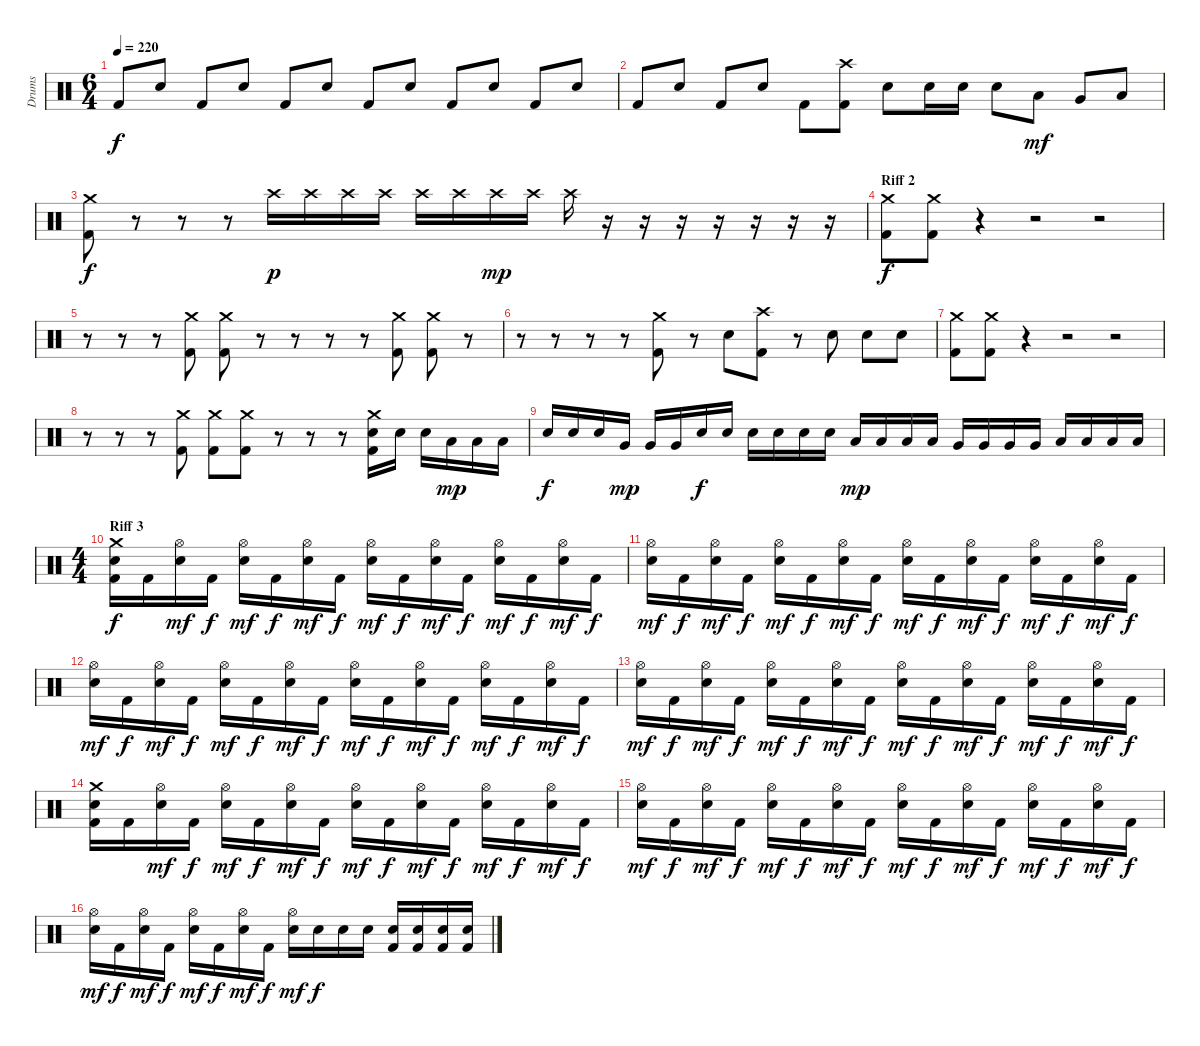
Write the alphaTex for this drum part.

\track ("Drums" "Drums") {instrument percussion}
\staff {score}
\articulation defaults
\ts (6 4)
\tempo 220
\clef neutral
\ks c "Kick (hit) 2".8{dy f} "Electric Snare (hit)".8 "Kick (hit) 2".8 "Electric Snare (hit)".8 "Kick (hit) 2".8 "Electric Snare (hit)".8 "Kick (hit) 2".8 "Electric Snare (hit)".8 "Kick (hit) 2".8 "Electric Snare (hit)".8 "Kick (hit) 2".8 "Electric Snare (hit)".8
|
"Kick (hit) 2".8 "Electric Snare (hit)".8 "Kick (hit) 2".8 "Electric Snare (hit)".8 "Kick (hit) 2".8 ("Crash high (hit)" "Kick (hit) 2").8 "Electric Snare (hit)".8 "Electric Snare (hit)".16 "Electric Snare (hit)".16 "Electric Snare (hit)".8 "Low Tom (hit)".8{dy mf} "Very Low Tom (hit)".8 "Low Floor Tom (hit)".8 |
("Crash medium (hit)" "Kick (hit) 2").8{dy f} r.8 r.8 r.8 "Crash high (hit)".16{dy p} "Crash high (hit)".16 "Crash high (hit)".16 "Crash high (hit)".16 "Crash high (hit)".16 "Crash high (hit)".16 "Crash high (hit)".16{dy mp} "Crash high (hit)".16 "Crash high (hit)".16 r.16 r.16 r.16 r.16 r.16 r.16 r.16 |
\section ("" "Riff 2")
("Crash medium (hit)" "Kick (hit) 2").8{dy f} ("Crash medium (hit)" "Kick (hit) 2").8 r.4 r.2 r.2 |
r.8 r.8 r.8 ("Crash medium (hit)" "Kick (hit) 2").8 ("Crash medium (hit)" "Kick (hit) 2").8 r.8 r.8 r.8 r.8 ("Crash medium (hit)" "Kick (hit) 2").8 ("Crash medium (hit)" "Kick (hit) 2").8 r.8 |
r.8 r.8 r.8 r.8 ("Crash medium (hit)" "Kick (hit) 2").8 r.8 "Electric Snare (hit)".8 ("Crash high (hit)" "Kick (hit) 2").8 r.8 "Electric Snare (hit)".8 "Electric Snare (hit)".8 "Electric Snare (hit)".8 |
("Crash medium (hit)" "Kick (hit) 2").8 ("Crash medium (hit)" "Kick (hit) 2").8 r.4 r.2 r.2 |
r.8 r.8 r.8 ("Crash medium (hit)" "Kick (hit) 2").8 ("Crash medium (hit)" "Kick (hit) 2").8 ("Crash medium (hit)" "Kick (hit) 2").8 r.8 r.8 r.8 ("Crash medium (hit)" "Electric Snare (hit)" "Kick (hit) 2").16 "Electric Snare (hit)".16 "Electric Snare (hit)".16 "Low Tom (hit)".16{dy mp} "Low Tom (hit)".16 "Low Tom (hit)".16 |
"Electric Snare (hit)".16{dy f} "Electric Snare (hit)".16 "Electric Snare (hit)".16 "Very Low Tom (hit)".16{dy mp} "Very Low Tom (hit)".16 "Very Low Tom (hit)".16 "Electric Snare (hit)".16{dy f} "Electric Snare (hit)".16 "Electric Snare (hit)".16 "Electric Snare (hit)".16 "Electric Snare (hit)".16 "Electric Snare (hit)".16 "Low Tom (hit)".16{dy mp} "Low Tom (hit)".16 "Low Tom (hit)".16 "Low Tom (hit)".16 "Very Low Tom (hit)".16 "Very Low Tom (hit)".16 "Very Low Tom (hit)".16 "Very Low Tom (hit)".16 "Low Floor Tom (hit)".16 "Low Floor Tom (hit)".16 "Low Floor Tom (hit)".16 "Low Floor Tom (hit)".16 |
\ts (4 4)
\section ("" "Riff 3")
("Crash medium (hit)" "Electric Snare (hit)" "Kick (hit) 2").16{dy f} "Kick (hit) 2".16 ("Hi-Hat (open)" "Electric Snare (hit)").16{dy mf} "Kick (hit) 2".16{dy f} ("Hi-Hat (open)" "Electric Snare (hit)").16{dy mf} "Kick (hit) 2".16{dy f} ("Hi-Hat (open)" "Electric Snare (hit)").16{dy mf} "Kick (hit) 2".16{dy f} ("Hi-Hat (open)" "Electric Snare (hit)").16{dy mf} "Kick (hit) 2".16{dy f} ("Hi-Hat (open)" "Electric Snare (hit)").16{dy mf} "Kick (hit) 2".16{dy f} ("Hi-Hat (open)" "Electric Snare (hit)").16{dy mf} "Kick (hit) 2".16{dy f} ("Hi-Hat (open)" "Electric Snare (hit)").16{dy mf} "Kick (hit) 2".16{dy f} |
("Hi-Hat (open)" "Electric Snare (hit)").16{dy mf} "Kick (hit) 2".16{dy f} ("Hi-Hat (open)" "Electric Snare (hit)").16{dy mf} "Kick (hit) 2".16{dy f} ("Hi-Hat (open)" "Electric Snare (hit)").16{dy mf} "Kick (hit) 2".16{dy f} ("Hi-Hat (open)" "Electric Snare (hit)").16{dy mf} "Kick (hit) 2".16{dy f} ("Hi-Hat (open)" "Electric Snare (hit)").16{dy mf} "Kick (hit) 2".16{dy f} ("Hi-Hat (open)" "Electric Snare (hit)").16{dy mf} "Kick (hit) 2".16{dy f} ("Hi-Hat (open)" "Electric Snare (hit)").16{dy mf} "Kick (hit) 2".16{dy f} ("Hi-Hat (open)" "Electric Snare (hit)").16{dy mf} "Kick (hit) 2".16{dy f} |
("Hi-Hat (open)" "Electric Snare (hit)").16{dy mf} "Kick (hit) 2".16{dy f} ("Hi-Hat (open)" "Electric Snare (hit)").16{dy mf} "Kick (hit) 2".16{dy f} ("Hi-Hat (open)" "Electric Snare (hit)").16{dy mf} "Kick (hit) 2".16{dy f} ("Hi-Hat (open)" "Electric Snare (hit)").16{dy mf} "Kick (hit) 2".16{dy f} ("Hi-Hat (open)" "Electric Snare (hit)").16{dy mf} "Kick (hit) 2".16{dy f} ("Hi-Hat (open)" "Electric Snare (hit)").16{dy mf} "Kick (hit) 2".16{dy f} ("Hi-Hat (open)" "Electric Snare (hit)").16{dy mf} "Kick (hit) 2".16{dy f} ("Hi-Hat (open)" "Electric Snare (hit)").16{dy mf} "Kick (hit) 2".16{dy f} |
("Hi-Hat (open)" "Electric Snare (hit)").16{dy mf} "Kick (hit) 2".16{dy f} ("Hi-Hat (open)" "Electric Snare (hit)").16{dy mf} "Kick (hit) 2".16{dy f} ("Hi-Hat (open)" "Electric Snare (hit)").16{dy mf} "Kick (hit) 2".16{dy f} ("Hi-Hat (open)" "Electric Snare (hit)").16{dy mf} "Kick (hit) 2".16{dy f} ("Hi-Hat (open)" "Electric Snare (hit)").16{dy mf} "Kick (hit) 2".16{dy f} ("Hi-Hat (open)" "Electric Snare (hit)").16{dy mf} "Kick (hit) 2".16{dy f} ("Hi-Hat (open)" "Electric Snare (hit)").16{dy mf} "Kick (hit) 2".16{dy f} ("Hi-Hat (open)" "Electric Snare (hit)").16{dy mf} "Kick (hit) 2".16{dy f} |
("Crash medium (hit)" "Electric Snare (hit)" "Kick (hit) 2").16 "Kick (hit) 2".16 ("Hi-Hat (open)" "Electric Snare (hit)").16{dy mf} "Kick (hit) 2".16{dy f} ("Hi-Hat (open)" "Electric Snare (hit)").16{dy mf} "Kick (hit) 2".16{dy f} ("Hi-Hat (open)" "Electric Snare (hit)").16{dy mf} "Kick (hit) 2".16{dy f} ("Hi-Hat (open)" "Electric Snare (hit)").16{dy mf} "Kick (hit) 2".16{dy f} ("Hi-Hat (open)" "Electric Snare (hit)").16{dy mf} "Kick (hit) 2".16{dy f} ("Hi-Hat (open)" "Electric Snare (hit)").16{dy mf} "Kick (hit) 2".16{dy f} ("Hi-Hat (open)" "Electric Snare (hit)").16{dy mf} "Kick (hit) 2".16{dy f} |
("Hi-Hat (open)" "Electric Snare (hit)").16{dy mf} "Kick (hit) 2".16{dy f} ("Hi-Hat (open)" "Electric Snare (hit)").16{dy mf} "Kick (hit) 2".16{dy f} ("Hi-Hat (open)" "Electric Snare (hit)").16{dy mf} "Kick (hit) 2".16{dy f} ("Hi-Hat (open)" "Electric Snare (hit)").16{dy mf} "Kick (hit) 2".16{dy f} ("Hi-Hat (open)" "Electric Snare (hit)").16{dy mf} "Kick (hit) 2".16{dy f} ("Hi-Hat (open)" "Electric Snare (hit)").16{dy mf} "Kick (hit) 2".16{dy f} ("Hi-Hat (open)" "Electric Snare (hit)").16{dy mf} "Kick (hit) 2".16{dy f} ("Hi-Hat (open)" "Electric Snare (hit)").16{dy mf} "Kick (hit) 2".16{dy f} |
("Hi-Hat (open)" "Electric Snare (hit)").16{dy mf} "Kick (hit) 2".16{dy f} ("Hi-Hat (open)" "Electric Snare (hit)").16{dy mf} "Kick (hit) 2".16{dy f} ("Hi-Hat (open)" "Electric Snare (hit)").16{dy mf} "Kick (hit) 2".16{dy f} ("Hi-Hat (open)" "Electric Snare (hit)").16{dy mf} "Kick (hit) 2".16{dy f} ("Hi-Hat (open)" "Electric Snare (hit)").16{dy mf} "Electric Snare (hit)".16{dy f} "Electric Snare (hit)".16 "Electric Snare (hit)".16 ("Electric Snare (hit)" "Kick (hit) 2").16 ("Electric Snare (hit)" "Kick (hit) 2").16 ("Electric Snare (hit)" "Kick (hit) 2").16 ("Electric Snare (hit)" "Kick (hit) 2").16
